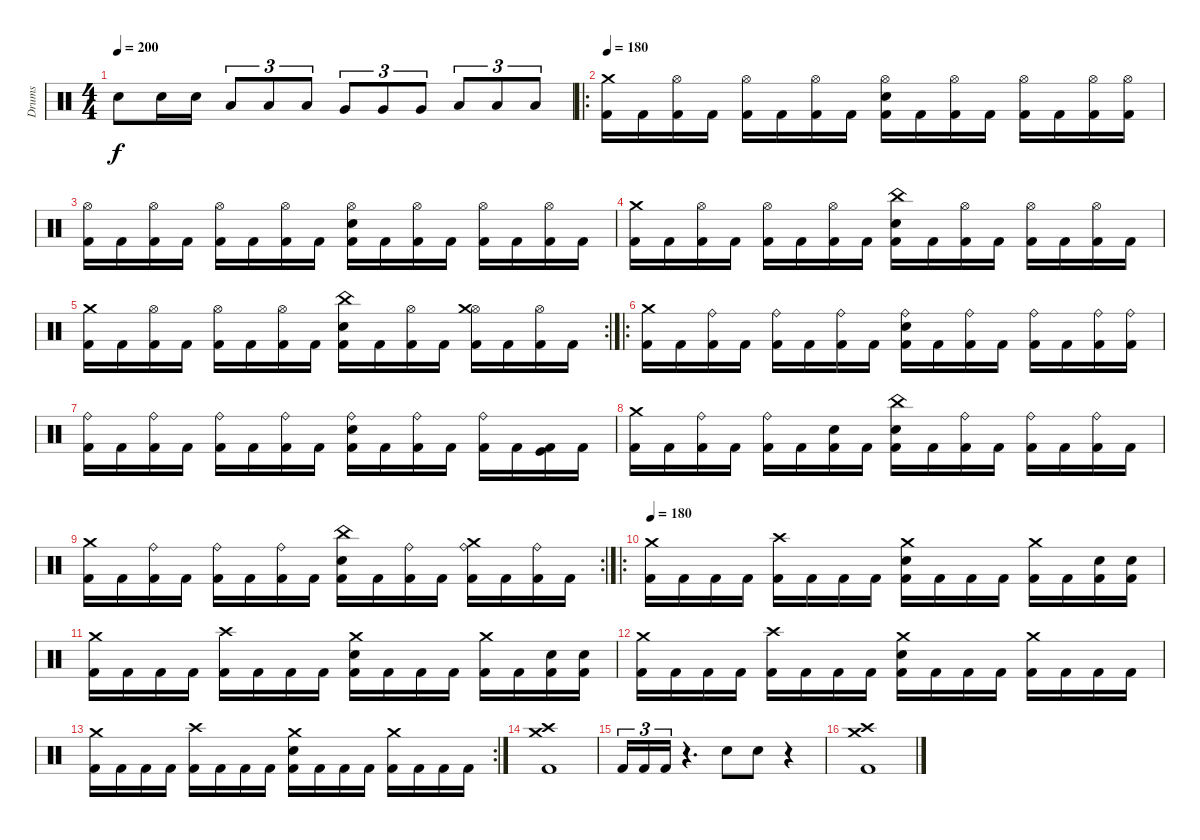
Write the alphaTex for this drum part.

\track ("Drums" "Drums") {instrument percussion}
\staff {score}
\articulation defaults
\ts (4 4)
\tempo 200
\clef neutral
\ks c "Electric Snare (hit)".8{dy f} "Electric Snare (hit)".16 "Electric Snare (hit)".16 "Low Floor Tom (hit)".8{tu (3 2)} "Low Floor Tom (hit)".8{tu (3 2)} "Low Floor Tom (hit)".8{tu (3 2)} "Very Low Tom (hit)".8{tu (3 2)} "Very Low Tom (hit)".8{tu (3 2)} "Very Low Tom (hit)".8{tu (3 2)} "Low Tom (hit)".8{tu (3 2)} "Low Tom (hit)".8{tu (3 2)} "Low Tom (hit)".8{tu (3 2)}
|
\ro
\tempo 180
("Kick (hit) 2" "Crash medium (hit)").16 "Kick (hit) 2".16 ("Kick (hit) 2" "Hi-Hat (open)").16 "Kick (hit) 2".16 ("Kick (hit) 2" "Hi-Hat (open)").16 "Kick (hit) 2".16 ("Kick (hit) 2" "Hi-Hat (open)").16 "Kick (hit) 2".16 ("Kick (hit) 2" "Electric Snare (hit)" "Hi-Hat (open)").16 "Kick (hit) 2".16 ("Kick (hit) 2" "Hi-Hat (open)").16 "Kick (hit) 2".16 ("Kick (hit) 2" "Hi-Hat (open)").16 "Kick (hit) 2".16 ("Kick (hit) 2" "Hi-Hat (open)").16 ("Kick (hit) 2" "Hi-Hat (open)").16 |
("Kick (hit) 2" "Hi-Hat (open)").16 "Kick (hit) 2".16 ("Kick (hit) 2" "Hi-Hat (open)").16 "Kick (hit) 2".16 ("Kick (hit) 2" "Hi-Hat (open)").16 "Kick (hit) 2".16 ("Kick (hit) 2" "Hi-Hat (open)").16 "Kick (hit) 2".16 ("Kick (hit) 2" "Electric Snare (hit)" "Hi-Hat (open)").16 "Kick (hit) 2".16 ("Kick (hit) 2" "Hi-Hat (open)").16 "Kick (hit) 2".16 ("Kick (hit) 2" "Hi-Hat (open)").16 "Kick (hit) 2".16 ("Kick (hit) 2" "Hi-Hat (open)").16 "Kick (hit) 2".16 |
("Kick (hit) 2" "Crash medium (hit)").16 "Kick (hit) 2".16 ("Kick (hit) 2" "Hi-Hat (open)").16 "Kick (hit) 2".16 ("Kick (hit) 2" "Hi-Hat (open)").16 "Kick (hit) 2".16 ("Kick (hit) 2" "Hi-Hat (open)").16 "Kick (hit) 2".16 ("Kick (hit) 2" "Electric Snare (hit)" "China (hit)").16 "Kick (hit) 2".16 ("Kick (hit) 2" "Hi-Hat (open)").16 "Kick (hit) 2".16 ("Kick (hit) 2" "Hi-Hat (open)").16 "Kick (hit) 2".16 ("Kick (hit) 2" "Hi-Hat (open)").16 "Kick (hit) 2".16 |
\rc 2
("Kick (hit) 2" "Crash medium (hit)").16 "Kick (hit) 2".16 ("Kick (hit) 2" "Hi-Hat (open)").16 "Kick (hit) 2".16 ("Kick (hit) 2" "Hi-Hat (open)").16 "Kick (hit) 2".16 ("Kick (hit) 2" "Hi-Hat (open)").16 "Kick (hit) 2".16 ("Kick (hit) 2" "Electric Snare (hit)" "China (hit)").16 "Kick (hit) 2".16 ("Kick (hit) 2" "Hi-Hat (open)").16 "Kick (hit) 2".16 ("Kick (hit) 2" "Hi-Hat (open)" "Crash medium (hit)").16 "Kick (hit) 2".16 ("Kick (hit) 2" "Hi-Hat (open)").16 "Kick (hit) 2".16 |
\ro
("Kick (hit) 2" "Crash medium (hit)").16 "Kick (hit) 2".16 ("Kick (hit) 2" "Ride (bell)").16 "Kick (hit) 2".16 ("Kick (hit) 2" "Ride (bell)").16 "Kick (hit) 2".16 ("Kick (hit) 2" "Ride (bell)").16 "Kick (hit) 2".16 ("Kick (hit) 2" "Electric Snare (hit)" "Ride (bell)").16 "Kick (hit) 2".16 ("Kick (hit) 2" "Ride (bell)").16 "Kick (hit) 2".16 ("Kick (hit) 2" "Ride (bell)").16 "Kick (hit) 2".16 ("Kick (hit) 2" "Ride (bell)").16 ("Kick (hit) 2" "Ride (bell)").16 |
("Kick (hit) 2" "Ride (bell)").16 "Kick (hit) 2".16 ("Kick (hit) 2" "Ride (bell)").16 "Kick (hit) 2".16 ("Kick (hit) 2" "Ride (bell)").16 "Kick (hit) 2".16 ("Kick (hit) 2" "Ride (bell)").16 "Kick (hit) 2".16 ("Kick (hit) 2" "Electric Snare (hit)" "Ride (bell)").16 "Kick (hit) 2".16 ("Kick (hit) 2" "Ride (bell)").16 "Kick (hit) 2".16 ("Kick (hit) 2" "Ride (bell)").16 "Kick (hit) 2".16 ("Kick (hit) 2" "Kick (hit)").16 "Kick (hit) 2".16 |
("Kick (hit) 2" "Crash medium (hit)").16 "Kick (hit) 2".16 ("Kick (hit) 2" "Ride (bell)").16 "Kick (hit) 2".16 ("Kick (hit) 2" "Ride (bell)").16 "Kick (hit) 2".16 ("Kick (hit) 2" "Snare (hit)").16 "Kick (hit) 2".16 ("Kick (hit) 2" "Electric Snare (hit)" "China (hit)").16 "Kick (hit) 2".16 ("Kick (hit) 2" "Ride (bell)").16 "Kick (hit) 2".16 ("Kick (hit) 2" "Ride (bell)").16 "Kick (hit) 2".16 ("Kick (hit) 2" "Ride (bell)").16 "Kick (hit) 2".16 |
\rc 2
("Kick (hit) 2" "Crash medium (hit)").16 "Kick (hit) 2".16 ("Kick (hit) 2" "Ride (bell)").16 "Kick (hit) 2".16 ("Kick (hit) 2" "Ride (bell)").16 "Kick (hit) 2".16 ("Kick (hit) 2" "Ride (bell)").16 "Kick (hit) 2".16 ("Kick (hit) 2" "Electric Snare (hit)" "China (hit)").16 "Kick (hit) 2".16 ("Kick (hit) 2" "Ride (bell)").16 "Kick (hit) 2".16 ("Kick (hit) 2" "Ride (bell)" "Crash medium (hit)").16 "Kick (hit) 2".16 ("Kick (hit) 2" "Ride (bell)").16 "Kick (hit) 2".16 |
\ro
\tempo 180
("Kick (hit) 2" "Crash medium (hit)").16 "Kick (hit) 2".16 "Kick (hit) 2".16 "Kick (hit) 2".16 ("Kick (hit) 2" "Crash high (hit)").16 "Kick (hit) 2".16 "Kick (hit) 2".16 "Kick (hit) 2".16 ("Kick (hit) 2" "Electric Snare (hit)" "Crash medium (hit)").16 "Kick (hit) 2".16 "Kick (hit) 2".16 "Kick (hit) 2".16 ("Kick (hit) 2" "Crash medium (hit)").16 "Kick (hit) 2".16 ("Kick (hit) 2" "Electric Snare (hit)").16 ("Kick (hit) 2" "Electric Snare (hit)").16 |
("Kick (hit) 2" "Crash medium (hit)").16 "Kick (hit) 2".16 "Kick (hit) 2".16 "Kick (hit) 2".16 ("Kick (hit) 2" "Crash high (hit)").16 "Kick (hit) 2".16 "Kick (hit) 2".16 "Kick (hit) 2".16 ("Kick (hit) 2" "Electric Snare (hit)" "Crash medium (hit)").16 "Kick (hit) 2".16 "Kick (hit) 2".16 "Kick (hit) 2".16 ("Kick (hit) 2" "Crash medium (hit)").16 "Kick (hit) 2".16 ("Kick (hit) 2" "Electric Snare (hit)").16 ("Kick (hit) 2" "Electric Snare (hit)").16 |
("Kick (hit) 2" "Crash medium (hit)").16 "Kick (hit) 2".16 "Kick (hit) 2".16 "Kick (hit) 2".16 ("Kick (hit) 2" "Crash high (hit)").16 "Kick (hit) 2".16 "Kick (hit) 2".16 "Kick (hit) 2".16 ("Kick (hit) 2" "Electric Snare (hit)" "Crash medium (hit)").16 "Kick (hit) 2".16 "Kick (hit) 2".16 "Kick (hit) 2".16 ("Kick (hit) 2" "Crash medium (hit)").16 "Kick (hit) 2".16 "Kick (hit) 2".16 "Kick (hit) 2".16 |
\rc 2
("Kick (hit) 2" "Crash medium (hit)").16 "Kick (hit) 2".16 "Kick (hit) 2".16 "Kick (hit) 2".16 ("Kick (hit) 2" "Crash high (hit)").16 "Kick (hit) 2".16 "Kick (hit) 2".16 "Kick (hit) 2".16 ("Kick (hit) 2" "Electric Snare (hit)" "Crash medium (hit)").16 "Kick (hit) 2".16 "Kick (hit) 2".16 "Kick (hit) 2".16 ("Kick (hit) 2" "Crash medium (hit)").16 "Kick (hit) 2".16 "Kick (hit) 2".16 "Kick (hit) 2".16 |
("Kick (hit) 2" "Crash high (hit)" "Crash medium (hit)").1 |
"Kick (hit) 2".16{tu (3 2)} "Kick (hit) 2".16{tu (3 2)} "Kick (hit) 2".16{tu (3 2)} r.4{d} "Electric Snare (hit)".8 "Electric Snare (hit)".8 r.4 |
("Kick (hit) 2" "Crash high (hit)" "Crash medium (hit)").1
